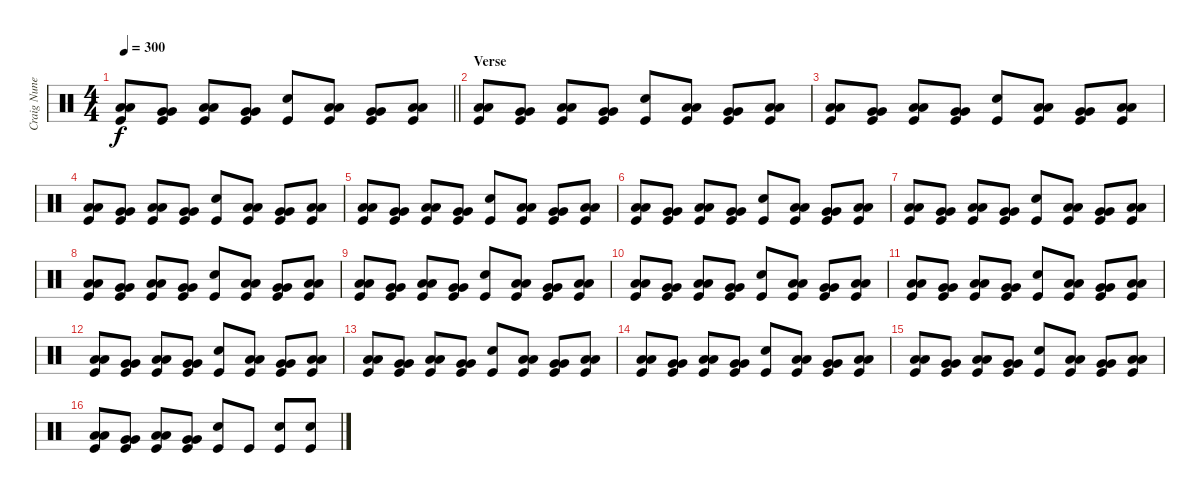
\track ("Craig Nunenmacher" "Craig Nune") {instrument percussion}
\staff {score}
\articulation defaults
\ts (4 4)
\tempo 300
\clef neutral
\barLineRight lightlight
\ks c
("Low Tom (hit)" "Low Tom (hit)" "Kick (hit)").8{dy f} ("Very Low Tom (hit)" "Very Low Tom (hit)" "Kick (hit)").8 ("Low Tom (hit)" "Low Tom (hit)" "Kick (hit)").8 ("Very Low Tom (hit)" "Very Low Tom (hit)" "Kick (hit)").8 ("Snare (hit) 2" "Kick (hit)").8 ("Low Tom (hit)" "Low Tom (hit)" "Kick (hit)").8 ("Very Low Tom (hit)" "Very Low Tom (hit)" "Kick (hit)").8 ("Low Tom (hit)" "Low Tom (hit)" "Kick (hit)").8 |
\section ("" "Verse")
("Low Tom (hit)" "Low Tom (hit)" "Kick (hit)").8 ("Very Low Tom (hit)" "Very Low Tom (hit)" "Kick (hit)").8 ("Low Tom (hit)" "Low Tom (hit)" "Kick (hit)").8 ("Very Low Tom (hit)" "Very Low Tom (hit)" "Kick (hit)").8 ("Snare (hit) 2" "Kick (hit)").8 ("Low Tom (hit)" "Low Tom (hit)" "Kick (hit)").8 ("Very Low Tom (hit)" "Very Low Tom (hit)" "Kick (hit)").8 ("Low Tom (hit)" "Low Tom (hit)" "Kick (hit)").8 |
("Low Tom (hit)" "Low Tom (hit)" "Kick (hit)").8 ("Very Low Tom (hit)" "Very Low Tom (hit)" "Kick (hit)").8 ("Low Tom (hit)" "Low Tom (hit)" "Kick (hit)").8 ("Very Low Tom (hit)" "Very Low Tom (hit)" "Kick (hit)").8 ("Snare (hit) 2" "Kick (hit)").8 ("Low Tom (hit)" "Low Tom (hit)" "Kick (hit)").8 ("Very Low Tom (hit)" "Very Low Tom (hit)" "Kick (hit)").8 ("Low Tom (hit)" "Low Tom (hit)" "Kick (hit)").8 |
("Low Tom (hit)" "Low Tom (hit)" "Kick (hit)").8 ("Very Low Tom (hit)" "Very Low Tom (hit)" "Kick (hit)").8 ("Low Tom (hit)" "Low Tom (hit)" "Kick (hit)").8 ("Very Low Tom (hit)" "Very Low Tom (hit)" "Kick (hit)").8 ("Snare (hit) 2" "Kick (hit)").8 ("Low Tom (hit)" "Low Tom (hit)" "Kick (hit)").8 ("Very Low Tom (hit)" "Very Low Tom (hit)" "Kick (hit)").8 ("Low Tom (hit)" "Low Tom (hit)" "Kick (hit)").8 |
("Low Tom (hit)" "Low Tom (hit)" "Kick (hit)").8 ("Very Low Tom (hit)" "Very Low Tom (hit)" "Kick (hit)").8 ("Low Tom (hit)" "Low Tom (hit)" "Kick (hit)").8 ("Very Low Tom (hit)" "Very Low Tom (hit)" "Kick (hit)").8 ("Snare (hit) 2" "Kick (hit)").8 ("Low Tom (hit)" "Low Tom (hit)" "Kick (hit)").8 ("Very Low Tom (hit)" "Very Low Tom (hit)" "Kick (hit)").8 ("Low Tom (hit)" "Low Tom (hit)" "Kick (hit)").8 |
("Low Tom (hit)" "Low Tom (hit)" "Kick (hit)").8 ("Very Low Tom (hit)" "Very Low Tom (hit)" "Kick (hit)").8 ("Low Tom (hit)" "Low Tom (hit)" "Kick (hit)").8 ("Very Low Tom (hit)" "Very Low Tom (hit)" "Kick (hit)").8 ("Snare (hit) 2" "Kick (hit)").8 ("Low Tom (hit)" "Low Tom (hit)" "Kick (hit)").8 ("Very Low Tom (hit)" "Very Low Tom (hit)" "Kick (hit)").8 ("Low Tom (hit)" "Low Tom (hit)" "Kick (hit)").8 |
("Low Tom (hit)" "Low Tom (hit)" "Kick (hit)").8 ("Very Low Tom (hit)" "Very Low Tom (hit)" "Kick (hit)").8 ("Low Tom (hit)" "Low Tom (hit)" "Kick (hit)").8 ("Very Low Tom (hit)" "Very Low Tom (hit)" "Kick (hit)").8 ("Snare (hit) 2" "Kick (hit)").8 ("Low Tom (hit)" "Low Tom (hit)" "Kick (hit)").8 ("Very Low Tom (hit)" "Very Low Tom (hit)" "Kick (hit)").8 ("Low Tom (hit)" "Low Tom (hit)" "Kick (hit)").8 |
("Low Tom (hit)" "Low Tom (hit)" "Kick (hit)").8 ("Very Low Tom (hit)" "Very Low Tom (hit)" "Kick (hit)").8 ("Low Tom (hit)" "Low Tom (hit)" "Kick (hit)").8 ("Very Low Tom (hit)" "Very Low Tom (hit)" "Kick (hit)").8 ("Snare (hit) 2" "Kick (hit)").8 ("Low Tom (hit)" "Low Tom (hit)" "Kick (hit)").8 ("Very Low Tom (hit)" "Very Low Tom (hit)" "Kick (hit)").8 ("Low Tom (hit)" "Low Tom (hit)" "Kick (hit)").8 |
("Low Tom (hit)" "Low Tom (hit)" "Kick (hit)").8 ("Very Low Tom (hit)" "Very Low Tom (hit)" "Kick (hit)").8 ("Low Tom (hit)" "Low Tom (hit)" "Kick (hit)").8 ("Very Low Tom (hit)" "Very Low Tom (hit)" "Kick (hit)").8 ("Snare (hit) 2" "Kick (hit)").8 ("Low Tom (hit)" "Low Tom (hit)" "Kick (hit)").8 ("Very Low Tom (hit)" "Very Low Tom (hit)" "Kick (hit)").8 ("Low Tom (hit)" "Low Tom (hit)" "Kick (hit)").8 |
("Low Tom (hit)" "Low Tom (hit)" "Kick (hit)").8 ("Very Low Tom (hit)" "Very Low Tom (hit)" "Kick (hit)").8 ("Low Tom (hit)" "Low Tom (hit)" "Kick (hit)").8 ("Very Low Tom (hit)" "Very Low Tom (hit)" "Kick (hit)").8 ("Snare (hit) 2" "Kick (hit)").8 ("Low Tom (hit)" "Low Tom (hit)" "Kick (hit)").8 ("Very Low Tom (hit)" "Very Low Tom (hit)" "Kick (hit)").8 ("Low Tom (hit)" "Low Tom (hit)" "Kick (hit)").8 |
("Low Tom (hit)" "Low Tom (hit)" "Kick (hit)").8 ("Very Low Tom (hit)" "Very Low Tom (hit)" "Kick (hit)").8 ("Low Tom (hit)" "Low Tom (hit)" "Kick (hit)").8 ("Very Low Tom (hit)" "Very Low Tom (hit)" "Kick (hit)").8 ("Snare (hit) 2" "Kick (hit)").8 ("Low Tom (hit)" "Low Tom (hit)" "Kick (hit)").8 ("Very Low Tom (hit)" "Very Low Tom (hit)" "Kick (hit)").8 ("Low Tom (hit)" "Low Tom (hit)" "Kick (hit)").8 |
("Low Tom (hit)" "Low Tom (hit)" "Kick (hit)").8 ("Very Low Tom (hit)" "Very Low Tom (hit)" "Kick (hit)").8 ("Low Tom (hit)" "Low Tom (hit)" "Kick (hit)").8 ("Very Low Tom (hit)" "Very Low Tom (hit)" "Kick (hit)").8 ("Snare (hit) 2" "Kick (hit)").8 ("Low Tom (hit)" "Low Tom (hit)" "Kick (hit)").8 ("Very Low Tom (hit)" "Very Low Tom (hit)" "Kick (hit)").8 ("Low Tom (hit)" "Low Tom (hit)" "Kick (hit)").8 |
("Low Tom (hit)" "Low Tom (hit)" "Kick (hit)").8 ("Very Low Tom (hit)" "Very Low Tom (hit)" "Kick (hit)").8 ("Low Tom (hit)" "Low Tom (hit)" "Kick (hit)").8 ("Very Low Tom (hit)" "Very Low Tom (hit)" "Kick (hit)").8 ("Snare (hit) 2" "Kick (hit)").8 ("Low Tom (hit)" "Low Tom (hit)" "Kick (hit)").8 ("Very Low Tom (hit)" "Very Low Tom (hit)" "Kick (hit)").8 ("Low Tom (hit)" "Low Tom (hit)" "Kick (hit)").8 |
("Low Tom (hit)" "Low Tom (hit)" "Kick (hit)").8 ("Very Low Tom (hit)" "Very Low Tom (hit)" "Kick (hit)").8 ("Low Tom (hit)" "Low Tom (hit)" "Kick (hit)").8 ("Very Low Tom (hit)" "Very Low Tom (hit)" "Kick (hit)").8 ("Snare (hit) 2" "Kick (hit)").8 ("Low Tom (hit)" "Low Tom (hit)" "Kick (hit)").8 ("Very Low Tom (hit)" "Very Low Tom (hit)" "Kick (hit)").8 ("Low Tom (hit)" "Low Tom (hit)" "Kick (hit)").8 |
("Low Tom (hit)" "Low Tom (hit)" "Kick (hit)").8 ("Very Low Tom (hit)" "Very Low Tom (hit)" "Kick (hit)").8 ("Low Tom (hit)" "Low Tom (hit)" "Kick (hit)").8 ("Very Low Tom (hit)" "Very Low Tom (hit)" "Kick (hit)").8 ("Snare (hit) 2" "Kick (hit)").8 ("Low Tom (hit)" "Low Tom (hit)" "Kick (hit)").8 ("Very Low Tom (hit)" "Very Low Tom (hit)" "Kick (hit)").8 ("Low Tom (hit)" "Low Tom (hit)" "Kick (hit)").8 |
("Low Tom (hit)" "Low Tom (hit)" "Kick (hit)").8 ("Very Low Tom (hit)" "Very Low Tom (hit)" "Kick (hit)").8 ("Low Tom (hit)" "Low Tom (hit)" "Kick (hit)").8 ("Very Low Tom (hit)" "Very Low Tom (hit)" "Kick (hit)").8 ("Snare (hit) 2" "Kick (hit)").8 "Kick (hit)".8 ("Snare (hit) 2" "Kick (hit)").8 ("Snare (hit) 2" "Kick (hit)").8
